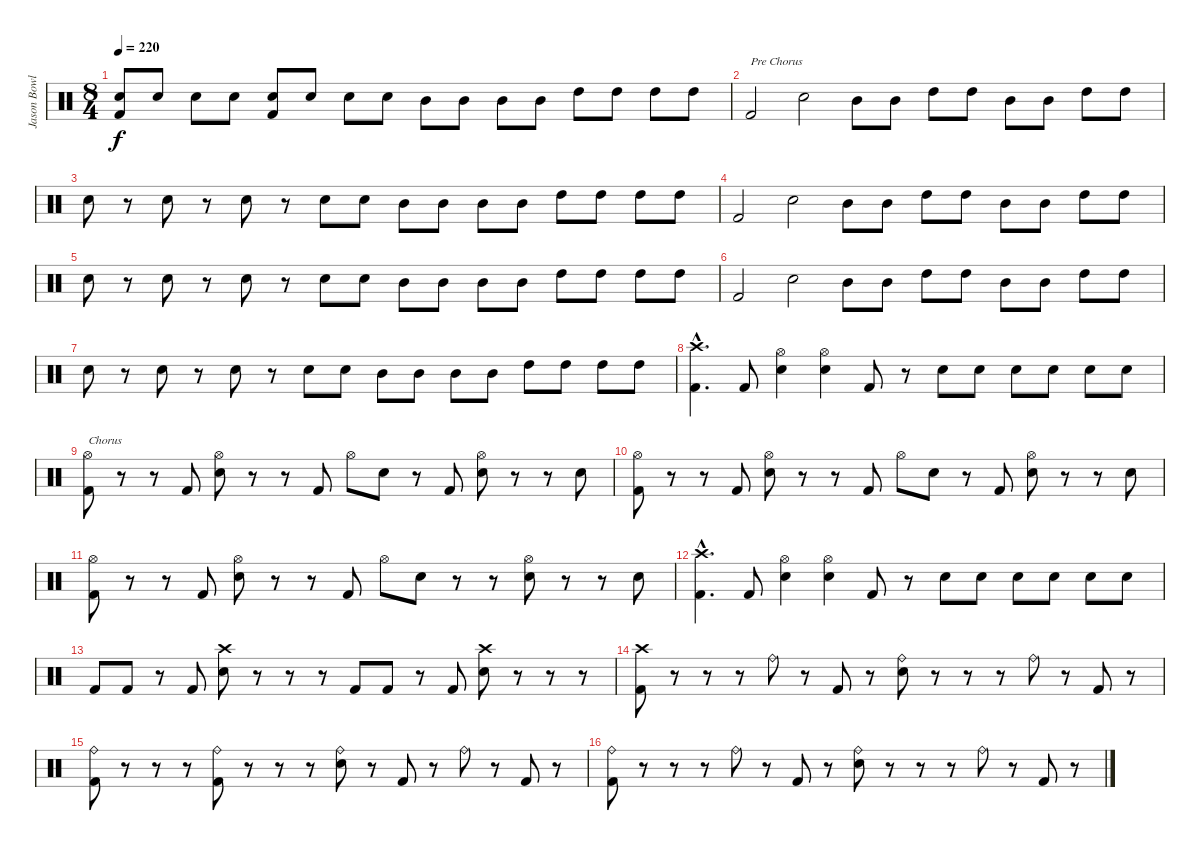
\track ("Jason Bowld" "Jason Bowl") {instrument percussion}
\staff {score}
\articulation defaults
\ts (8 4)
\tempo 220
\clef neutral
\ks c
("Snare (hit) 2" "Kick (hit) 2").8{dy f} "Snare (hit) 2".8 "Snare (hit) 2".8 "Snare (hit) 2".8 ("Snare (hit) 2" "Kick (hit) 2").8 "Snare (hit) 2".8 "Snare (hit) 2".8 "Snare (hit) 2".8 "Mid Tom (hit)".8 "Mid Tom (hit)".8 "Mid Tom (hit)".8 "Mid Tom (hit)".8 "High Tom (hit)".8 "High Tom (hit)".8 "High Tom (hit)".8 "High Tom (hit)".8 |
"Kick (hit) 2".2{txt "Pre Chorus"} "Snare (hit) 2".2 "Mid Tom (hit)".8 "Mid Tom (hit)".8 "High Tom (hit)".8 "High Tom (hit)".8 "Mid Tom (hit)".8 "Mid Tom (hit)".8 "High Tom (hit)".8 "High Tom (hit)".8 |
"Snare (hit) 2".8 r.8 "Snare (hit) 2".8 r.8 "Snare (hit) 2".8 r.8 "Snare (hit) 2".8 "Snare (hit) 2".8 "Mid Tom (hit)".8 "Mid Tom (hit)".8 "Mid Tom (hit)".8 "Mid Tom (hit)".8 "High Tom (hit)".8 "High Tom (hit)".8 "High Tom (hit)".8 "High Tom (hit)".8 |
"Kick (hit) 2".2 "Snare (hit) 2".2 "Mid Tom (hit)".8 "Mid Tom (hit)".8 "High Tom (hit)".8 "High Tom (hit)".8 "Mid Tom (hit)".8 "Mid Tom (hit)".8 "High Tom (hit)".8 "High Tom (hit)".8 |
"Snare (hit) 2".8 r.8 "Snare (hit) 2".8 r.8 "Snare (hit) 2".8 r.8 "Snare (hit) 2".8 "Snare (hit) 2".8 "Mid Tom (hit)".8 "Mid Tom (hit)".8 "Mid Tom (hit)".8 "Mid Tom (hit)".8 "High Tom (hit)".8 "High Tom (hit)".8 "High Tom (hit)".8 "High Tom (hit)".8 |
"Kick (hit) 2".2 "Snare (hit) 2".2 "Mid Tom (hit)".8 "Mid Tom (hit)".8 "High Tom (hit)".8 "High Tom (hit)".8 "Mid Tom (hit)".8 "Mid Tom (hit)".8 "High Tom (hit)".8 "High Tom (hit)".8 |
"Snare (hit) 2".8 r.8 "Snare (hit) 2".8 r.8 "Snare (hit) 2".8 r.8 "Snare (hit) 2".8 "Snare (hit) 2".8 "Mid Tom (hit)".8 "Mid Tom (hit)".8 "Mid Tom (hit)".8 "Mid Tom (hit)".8 "High Tom (hit)".8 "High Tom (hit)".8 "High Tom (hit)".8 "High Tom (hit)".8 |
("Crash high (hit)"{hac} "Kick (hit) 2"{hac}).4{d} "Kick (hit) 2".8 ("Hi-Hat (open)" "Snare (hit) 2").4 ("Hi-Hat (open)" "Snare (hit) 2").4 "Kick (hit) 2".8 r.8 "Snare (hit) 2".8 "Snare (hit) 2".8 "Snare (hit) 2".8 "Snare (hit) 2".8 "Snare (hit) 2".8 "Snare (hit) 2".8 |
("Hi-Hat (open)" "Kick (hit) 2").8{txt "Chorus"} r.8 r.8 "Kick (hit) 2".8 ("Hi-Hat (open)" "Snare (hit) 2").8 r.8 r.8 "Kick (hit) 2".8 "Hi-Hat (open)".8 "Snare (hit) 2".8 r.8 "Kick (hit) 2".8 ("Hi-Hat (open)" "Snare (hit) 2").8 r.8 r.8 "Snare (hit) 2".8 |
("Hi-Hat (open)" "Kick (hit) 2").8 r.8 r.8 "Kick (hit) 2".8 ("Hi-Hat (open)" "Snare (hit) 2").8 r.8 r.8 "Kick (hit) 2".8 "Hi-Hat (open)".8 "Snare (hit) 2".8 r.8 "Kick (hit) 2".8 ("Hi-Hat (open)" "Snare (hit) 2").8 r.8 r.8 "Snare (hit) 2".8 |
("Hi-Hat (open)" "Kick (hit) 2").8 r.8 r.8 "Kick (hit) 2".8 ("Hi-Hat (open)" "Snare (hit) 2").8 r.8 r.8 "Kick (hit) 2".8 "Hi-Hat (open)".8 "Snare (hit) 2".8 r.8 r.8 ("Hi-Hat (open)" "Snare (hit) 2").8 r.8 r.8 "Snare (hit) 2".8 |
("Crash high (hit)"{hac} "Kick (hit) 2"{hac}).4{d} "Kick (hit) 2".8 ("Hi-Hat (open)" "Snare (hit) 2").4 ("Hi-Hat (open)" "Snare (hit) 2").4 "Kick (hit) 2".8 r.8 "Snare (hit) 2".8 "Snare (hit) 2".8 "Snare (hit) 2".8 "Snare (hit) 2".8 "Snare (hit) 2".8 "Snare (hit) 2".8 |
"Kick (hit) 2".8 "Kick (hit) 2".8 r.8 "Kick (hit) 2".8 ("Snare (hit) 2" "Crash high (hit)").8 r.8 r.8 r.8 "Kick (hit) 2".8 "Kick (hit) 2".8 r.8 "Kick (hit) 2".8 ("Snare (hit) 2" "Crash high (hit)").8 r.8 r.8 r.8 |
("Kick (hit) 2" "Crash high (hit)").8 r.8 r.8 r.8 "Ride (bell)".8 r.8 "Kick (hit) 2".8 r.8 ("Ride (bell)" "Snare (hit) 2").8 r.8 r.8 r.8 "Ride (bell)".8 r.8 "Kick (hit) 2".8 r.8 |
("Ride (bell)" "Kick (hit) 2").8 r.8 r.8 r.8 ("Ride (bell)" "Kick (hit) 2").8 r.8 r.8 r.8 ("Ride (bell)" "Snare (hit) 2").8 r.8 "Kick (hit) 2".8 r.8 "Ride (bell)".8 r.8 "Kick (hit) 2".8 r.8 |
("Ride (bell)" "Kick (hit) 2").8 r.8 r.8 r.8 "Ride (bell)".8 r.8 "Kick (hit) 2".8 r.8 ("Ride (bell)" "Snare (hit) 2").8 r.8 r.8 r.8 "Ride (bell)".8 r.8 "Kick (hit) 2".8 r.8
